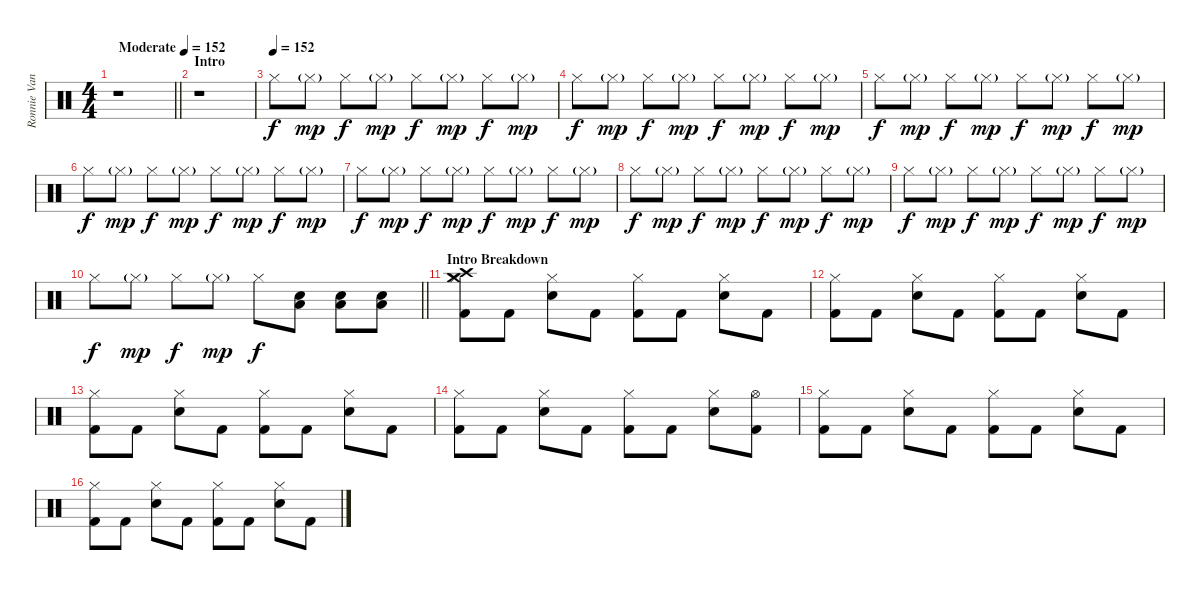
\track ("Ronnie Vannucci Jr." "Ronnie Van") {instrument percussion}
\staff
\articulation defaults
\ts (4 4)
\tempo (152 "Moderate")
\clef neutral
\barLineRight lightlight
\ks c
r.1{dy f} |
\section ("" "Intro")
r.1 |
\tempo (152)
"Hi-Hat (closed)".8{volume 13} "Hi-Hat (closed)"{g}.8{dy mp} "Hi-Hat (closed)".8{dy f} "Hi-Hat (closed)"{g}.8{dy mp} "Hi-Hat (closed)".8{dy f} "Hi-Hat (closed)"{g}.8{dy mp} "Hi-Hat (closed)".8{dy f} "Hi-Hat (closed)"{g}.8{dy mp} |
"Hi-Hat (closed)".8{dy f} "Hi-Hat (closed)"{g}.8{dy mp} "Hi-Hat (closed)".8{dy f} "Hi-Hat (closed)"{g}.8{dy mp} "Hi-Hat (closed)".8{dy f} "Hi-Hat (closed)"{g}.8{dy mp} "Hi-Hat (closed)".8{dy f} "Hi-Hat (closed)"{g}.8{dy mp} |
"Hi-Hat (closed)".8{dy f} "Hi-Hat (closed)"{g}.8{dy mp} "Hi-Hat (closed)".8{dy f} "Hi-Hat (closed)"{g}.8{dy mp} "Hi-Hat (closed)".8{dy f} "Hi-Hat (closed)"{g}.8{dy mp} "Hi-Hat (closed)".8{dy f} "Hi-Hat (closed)"{g}.8{dy mp} |
"Hi-Hat (closed)".8{dy f} "Hi-Hat (closed)"{g}.8{dy mp} "Hi-Hat (closed)".8{dy f} "Hi-Hat (closed)"{g}.8{dy mp} "Hi-Hat (closed)".8{dy f} "Hi-Hat (closed)"{g}.8{dy mp} "Hi-Hat (closed)".8{dy f} "Hi-Hat (closed)"{g}.8{dy mp} |
"Hi-Hat (closed)".8{dy f} "Hi-Hat (closed)"{g}.8{dy mp} "Hi-Hat (closed)".8{dy f} "Hi-Hat (closed)"{g}.8{dy mp} "Hi-Hat (closed)".8{dy f} "Hi-Hat (closed)"{g}.8{dy mp} "Hi-Hat (closed)".8{dy f} "Hi-Hat (closed)"{g}.8{dy mp} |
"Hi-Hat (closed)".8{dy f} "Hi-Hat (closed)"{g}.8{dy mp} "Hi-Hat (closed)".8{dy f} "Hi-Hat (closed)"{g}.8{dy mp} "Hi-Hat (closed)".8{dy f} "Hi-Hat (closed)"{g}.8{dy mp} "Hi-Hat (closed)".8{dy f} "Hi-Hat (closed)"{g}.8{dy mp} |
"Hi-Hat (closed)".8{dy f} "Hi-Hat (closed)"{g}.8{dy mp} "Hi-Hat (closed)".8{dy f} "Hi-Hat (closed)"{g}.8{dy mp} "Hi-Hat (closed)".8{dy f} "Hi-Hat (closed)"{g}.8{dy mp} "Hi-Hat (closed)".8{dy f} "Hi-Hat (closed)"{g}.8{dy mp} |
\barLineRight lightlight "Hi-Hat (closed)".8{dy f} "Hi-Hat (closed)"{g}.8{dy mp} "Hi-Hat (closed)".8{dy f} "Hi-Hat (closed)"{g}.8{dy mp} "Hi-Hat (closed)".8{dy f}
("Low Tom (hit)" "Electric Snare (hit)").8 ("Low Tom (hit)" "Electric Snare (hit)").8 ("Low Tom (hit)" "Electric Snare (hit)").8 |
\section ("" "Intro Breakdown")
("Crash high (hit)" "Crash medium (hit)" "Hi-Hat (closed)" "Kick (hit) 2").8 "Kick (hit) 2".8 ("Hi-Hat (closed)" "Electric Snare (hit)").8 "Kick (hit) 2".8 ("Hi-Hat (closed)" "Kick (hit) 2").8 "Kick (hit) 2".8 ("Hi-Hat (closed)" "Electric Snare (hit)").8 "Kick (hit) 2".8 |
("Hi-Hat (closed)" "Kick (hit) 2").8 "Kick (hit) 2".8 ("Hi-Hat (closed)" "Electric Snare (hit)").8 "Kick (hit) 2".8 ("Hi-Hat (closed)" "Kick (hit) 2").8 "Kick (hit) 2".8 ("Hi-Hat (closed)" "Electric Snare (hit)").8 "Kick (hit) 2".8 |
("Hi-Hat (closed)" "Kick (hit) 2").8 "Kick (hit) 2".8 ("Hi-Hat (closed)" "Electric Snare (hit)").8 "Kick (hit) 2".8 ("Hi-Hat (closed)" "Kick (hit) 2").8 "Kick (hit) 2".8 ("Hi-Hat (closed)" "Electric Snare (hit)").8 "Kick (hit) 2".8 |
("Hi-Hat (closed)" "Kick (hit) 2").8 "Kick (hit) 2".8 ("Hi-Hat (closed)" "Electric Snare (hit)").8 "Kick (hit) 2".8 ("Hi-Hat (closed)" "Kick (hit) 2").8 "Kick (hit) 2".8 ("Hi-Hat (closed)" "Electric Snare (hit)").8 ("Hi-Hat (open)" "Kick (hit) 2").8 |
("Hi-Hat (closed)" "Kick (hit) 2").8 "Kick (hit) 2".8 ("Hi-Hat (closed)" "Electric Snare (hit)").8 "Kick (hit) 2".8 ("Hi-Hat (closed)" "Kick (hit) 2").8 "Kick (hit) 2".8 ("Hi-Hat (closed)" "Electric Snare (hit)").8 "Kick (hit) 2".8 |
("Hi-Hat (closed)" "Kick (hit) 2").8 "Kick (hit) 2".8 ("Hi-Hat (closed)" "Electric Snare (hit)").8 "Kick (hit) 2".8 ("Hi-Hat (closed)" "Kick (hit) 2").8 "Kick (hit) 2".8 ("Hi-Hat (closed)" "Electric Snare (hit)").8 "Kick (hit) 2".8
